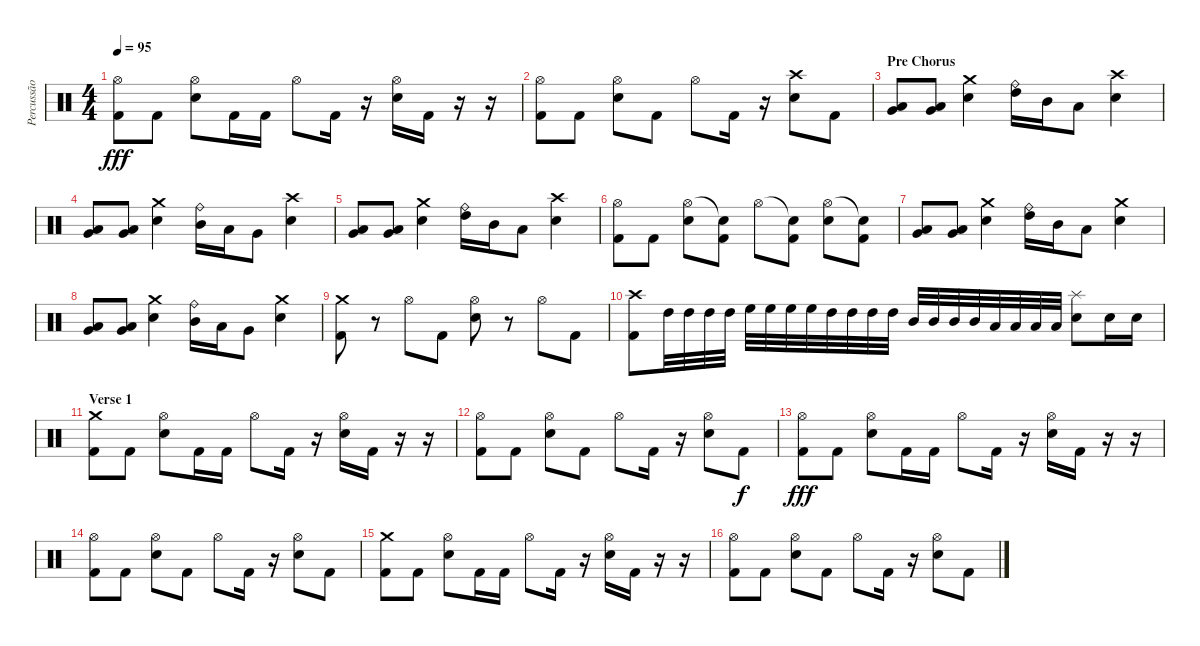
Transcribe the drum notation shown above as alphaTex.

\track ("Percussão" "Percussão") {instrument percussion}
\staff {score}
\articulation defaults
\ts (4 4)
\tempo 95
\clef neutral
\ks c
("Hi-Hat (open)" "Kick (hit) 2").8{dy fff} "Kick (hit) 2".8 ("Hi-Hat (open)" "Electric Snare (hit)").8 "Kick (hit) 2".16 "Kick (hit) 2".16 "Hi-Hat (open)".8 "Kick (hit) 2".16 r.16 ("Hi-Hat (open)" "Electric Snare (hit)").16 "Kick (hit) 2".16 r.16 r.16 |
("Hi-Hat (open)" "Kick (hit) 2").8 "Kick (hit) 2".8 ("Hi-Hat (open)" "Electric Snare (hit)").8 "Kick (hit) 2".8 "Hi-Hat (open)".8 "Kick (hit) 2".16 r.16 ("Crash high (hit)" "Electric Snare (hit)").8 "Kick (hit) 2".8 |
\section ("" "Pre Chorus")
("Low Floor Tom (hit)" "Very Low Tom (hit)").8 ("Low Floor Tom (hit)" "Very Low Tom (hit)").8 ("Crash medium (hit)" "Electric Snare (hit)").4 ("Ride (bell)" "High Tom (hit)").16 "Mid Tom (hit)".16 "Low Tom (hit)".8 ("Crash high (hit)" "Electric Snare (hit)").4 |
("Low Floor Tom (hit)" "Very Low Tom (hit)").8 ("Low Floor Tom (hit)" "Very Low Tom (hit)").8 ("Crash medium (hit)" "Electric Snare (hit)").4 ("Ride (bell)" "Mid Tom (hit)").16 "Low Tom (hit)".16 "Very Low Tom (hit)".8 ("Crash high (hit)" "Electric Snare (hit)").4 |
("Low Floor Tom (hit)" "Very Low Tom (hit)").8 ("Low Floor Tom (hit)" "Very Low Tom (hit)").8 ("Crash medium (hit)" "Electric Snare (hit)").4 ("Ride (bell)" "High Tom (hit)").16 "Mid Tom (hit)".16 "Low Tom (hit)".8 ("Crash high (hit)" "Electric Snare (hit)").4 |
("Hi-Hat (open)" "Kick (hit) 2").8 "Kick (hit) 2".8 ("Hi-Hat (open)" "Electric Snare (hit)").8 ("Snare (hit)"{t} "Kick (hit) 2").8 "Hi-Hat (open)".8 ("Snare (hit)"{t} "Kick (hit) 2").8 ("Hi-Hat (open)" "Electric Snare (hit)").8 ("Snare (hit)"{t} "Kick (hit) 2").8 |
("Low Floor Tom (hit)" "Very Low Tom (hit)").8 ("Low Floor Tom (hit)" "Very Low Tom (hit)").8 ("Crash medium (hit)" "Electric Snare (hit)").4 ("Ride (bell)" "High Tom (hit)").16 "Mid Tom (hit)".16 "Low Tom (hit)".8 ("Crash medium (hit)" "Electric Snare (hit)").4 |
("Low Floor Tom (hit)" "Very Low Tom (hit)").8 ("Low Floor Tom (hit)" "Very Low Tom (hit)").8 ("Crash medium (hit)" "Electric Snare (hit)").4 ("Ride (bell)" "Mid Tom (hit)").16 "Low Tom (hit)".16 "Very Low Tom (hit)".8 ("Crash medium (hit)" "Electric Snare (hit)").4 |
("Crash medium (hit)" "Kick (hit) 2").8 r.8 "Hi-Hat (open)".8 "Kick (hit) 2".8 ("Hi-Hat (open)" "Electric Snare (hit)").8 r.8 "Hi-Hat (open)".8 "Kick (hit) 2".8 |
("Crash high (hit)" "Kick (hit) 2").8 "High Tom (hit)".32 "High Tom (hit)".32 "High Tom (hit)".32 "High Tom (hit)".32 "High Floor Tom (hit)".32 "High Floor Tom (hit)".32 "High Floor Tom (hit)".32 "High Floor Tom (hit)".32 "High Tom (hit)".32 "High Tom (hit)".32 "High Tom (hit)".32 "High Tom (hit)".32 "Mid Tom (hit)".32 "Mid Tom (hit)".32 "Mid Tom (hit)".32 "Mid Tom (hit)".32 "Low Tom (hit)".32 "Low Tom (hit)".32 "Low Tom (hit)".32 "Low Tom (hit)".32 ("Splash (hit)" "Electric Snare (hit)").8 "Electric Snare (hit)".16 "Electric Snare (hit)".16 |
\section ("" "Verse 1")
("Crash medium (hit)" "Kick (hit) 2").8 "Kick (hit) 2".8 ("Hi-Hat (open)" "Electric Snare (hit)").8 "Kick (hit) 2".16 "Kick (hit) 2".16 "Hi-Hat (open)".8 "Kick (hit) 2".16 r.16 ("Hi-Hat (open)" "Electric Snare (hit)").16 "Kick (hit) 2".16 r.16 r.16 |
("Hi-Hat (open)" "Kick (hit) 2").8 "Kick (hit) 2".8 ("Hi-Hat (open)" "Electric Snare (hit)").8 "Kick (hit) 2".8 "Hi-Hat (open)".8 "Kick (hit) 2".16 r.16 ("Hi-Hat (open)" "Electric Snare (hit)").8 "Kick (hit) 2".8{dy f} |
("Hi-Hat (open)" "Kick (hit) 2").8{dy fff} "Kick (hit) 2".8 ("Hi-Hat (open)" "Electric Snare (hit)").8 "Kick (hit) 2".16 "Kick (hit) 2".16 "Hi-Hat (open)".8 "Kick (hit) 2".16 r.16 ("Hi-Hat (open)" "Electric Snare (hit)").16 "Kick (hit) 2".16 r.16 r.16 |
("Hi-Hat (open)" "Kick (hit) 2").8 "Kick (hit) 2".8 ("Hi-Hat (open)" "Electric Snare (hit)").8 "Kick (hit) 2".8 "Hi-Hat (open)".8 "Kick (hit) 2".16 r.16 ("Hi-Hat (open)" "Electric Snare (hit)").8 "Kick (hit) 2".8 |
("Crash medium (hit)" "Kick (hit) 2").8 "Kick (hit) 2".8 ("Hi-Hat (open)" "Electric Snare (hit)").8 "Kick (hit) 2".16 "Kick (hit) 2".16 "Hi-Hat (open)".8 "Kick (hit) 2".16 r.16 ("Hi-Hat (open)" "Electric Snare (hit)").16 "Kick (hit) 2".16 r.16 r.16 |
("Hi-Hat (open)" "Kick (hit) 2").8 "Kick (hit) 2".8 ("Hi-Hat (open)" "Electric Snare (hit)").8 "Kick (hit) 2".8 "Hi-Hat (open)".8 "Kick (hit) 2".16 r.16 ("Hi-Hat (open)" "Electric Snare (hit)").8 "Kick (hit) 2".8
